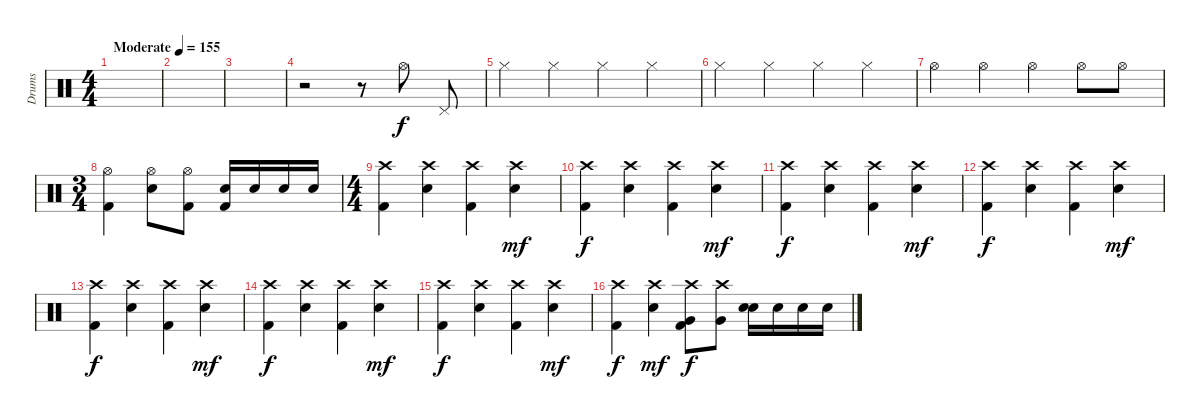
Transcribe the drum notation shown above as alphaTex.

\track ("Drums" "Drums") {instrument percussion}
\staff {score}
\articulation defaults
\ts (4 4)
\tempo (155 "Moderate")
\clef neutral
\ks c
|
|
|
r.2 r.8 "Hi-Hat (open)".8 "Pedal Hi-Hat (hit)".8 |
"Hi-Hat (closed)".4 "Hi-Hat (closed)".4 "Hi-Hat (closed)".4 "Hi-Hat (closed)".4 |
"Hi-Hat (closed)".4 "Hi-Hat (closed)".4 "Hi-Hat (closed)".4 "Hi-Hat (closed)".4 |
"Hi-Hat (open)".4 "Hi-Hat (open)".4 "Hi-Hat (open)".4 "Hi-Hat (open)".8 "Hi-Hat (open)".8 |
\ts (3 4)
("Hi-Hat (open)" "Kick (hit) 2").4 ("Hi-Hat (open)" "Electric Snare (hit)").8 ("Hi-Hat (open)" "Kick (hit) 2").8 ("Electric Snare (hit)" "Kick (hit) 2").16 "Electric Snare (hit)".16 "Electric Snare (hit)".16 "Electric Snare (hit)".16 |
\ts (4 4)
("Crash high (hit)" "Kick (hit) 2").4 ("Crash high (hit)" "Electric Snare (hit)").4 ("Crash high (hit)" "Kick (hit) 2").4 ("Crash high (hit)" "Electric Snare (hit)").4{dy mf} |
("Crash high (hit)" "Kick (hit) 2").4{dy f} ("Crash high (hit)" "Electric Snare (hit)").4 ("Crash high (hit)" "Kick (hit) 2").4 ("Crash high (hit)" "Electric Snare (hit)").4{dy mf} |
("Crash high (hit)" "Kick (hit) 2").4{dy f} ("Crash high (hit)" "Electric Snare (hit)").4 ("Crash high (hit)" "Kick (hit) 2").4 ("Crash high (hit)" "Electric Snare (hit)").4{dy mf} |
("Crash high (hit)" "Kick (hit) 2").4{dy f} ("Crash high (hit)" "Electric Snare (hit)").4 ("Crash high (hit)" "Kick (hit) 2").4 ("Crash high (hit)" "Electric Snare (hit)").4{dy mf} |
("Crash high (hit)" "Kick (hit) 2").4{dy f} ("Crash high (hit)" "Electric Snare (hit)").4 ("Crash high (hit)" "Kick (hit) 2").4 ("Crash high (hit)" "Electric Snare (hit)").4{dy mf} |
("Crash high (hit)" "Kick (hit) 2").4{dy f} ("Crash high (hit)" "Electric Snare (hit)").4 ("Crash high (hit)" "Kick (hit) 2").4 ("Crash high (hit)" "Electric Snare (hit)").4{dy mf} |
("Crash high (hit)" "Kick (hit) 2").4{dy f} ("Crash high (hit)" "Electric Snare (hit)").4 ("Crash high (hit)" "Kick (hit) 2").4 ("Crash high (hit)" "Electric Snare (hit)").4{dy mf} |
("Crash high (hit)" "Kick (hit) 2").4{dy f} ("Crash high (hit)" "Electric Snare (hit)").4{dy mf} ("Crash high (hit)" "Very Low Tom (hit)" "Kick (hit) 2").8{dy f} ("Crash high (hit)" "Very Low Tom (hit)").8 ("Electric Snare (hit)" "Electric Snare (hit)").16 "Electric Snare (hit)".16 "Electric Snare (hit)".16 "Electric Snare (hit)".16
